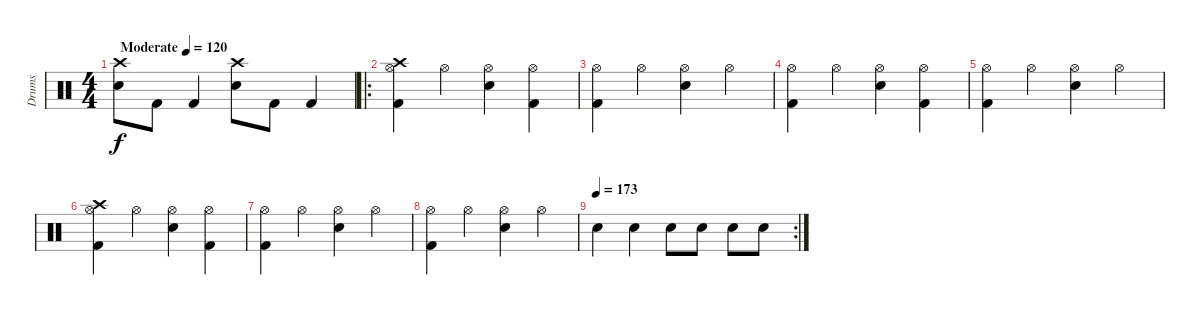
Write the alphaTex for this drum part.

\track ("Drums" "Drums") {instrument percussion}
\staff {score}
\articulation defaults
\ts (4 4)
\tempo (120 "Moderate")
\tempo 173
\tempo (120 "Moderate")
\clef neutral
\ks c
("Crash high (hit)" "Snare (hit) 2").8{dy f} "Kick (hit) 2".8 "Kick (hit) 2".4 ("Crash high (hit)" "Snare (hit) 2").8 "Kick (hit) 2".8 "Kick (hit) 2".4 |
\ro
("Crash high (hit)" "Hi-Hat (open)" "Kick (hit) 2").4 "Hi-Hat (open)".4 ("Hi-Hat (open)" "Snare (hit) 2").4 ("Hi-Hat (open)" "Kick (hit) 2").4 |
("Hi-Hat (open)" "Kick (hit) 2").4 "Hi-Hat (open)".4 ("Hi-Hat (open)" "Snare (hit) 2").4 "Hi-Hat (open)".4 |
("Hi-Hat (open)" "Kick (hit) 2").4 "Hi-Hat (open)".4 ("Hi-Hat (open)" "Snare (hit) 2").4 ("Hi-Hat (open)" "Kick (hit) 2").4 |
("Hi-Hat (open)" "Kick (hit) 2").4 "Hi-Hat (open)".4 ("Hi-Hat (open)" "Snare (hit) 2").4 "Hi-Hat (open)".4 |
("Crash high (hit)" "Hi-Hat (open)" "Kick (hit) 2").4 "Hi-Hat (open)".4 ("Hi-Hat (open)" "Snare (hit) 2").4 ("Hi-Hat (open)" "Kick (hit) 2").4 |
("Hi-Hat (open)" "Kick (hit) 2").4 "Hi-Hat (open)".4 ("Hi-Hat (open)" "Snare (hit) 2").4 "Hi-Hat (open)".4 |
("Hi-Hat (open)" "Kick (hit) 2").4 "Hi-Hat (open)".4 ("Hi-Hat (open)" "Snare (hit) 2").4 "Hi-Hat (open)".4 |
\rc 2
\tempo (173)
"Snare (hit) 2".4 "Snare (hit) 2".4 "Snare (hit) 2".8 "Snare (hit) 2".8 "Snare (hit) 2".8 "Snare (hit) 2".8
